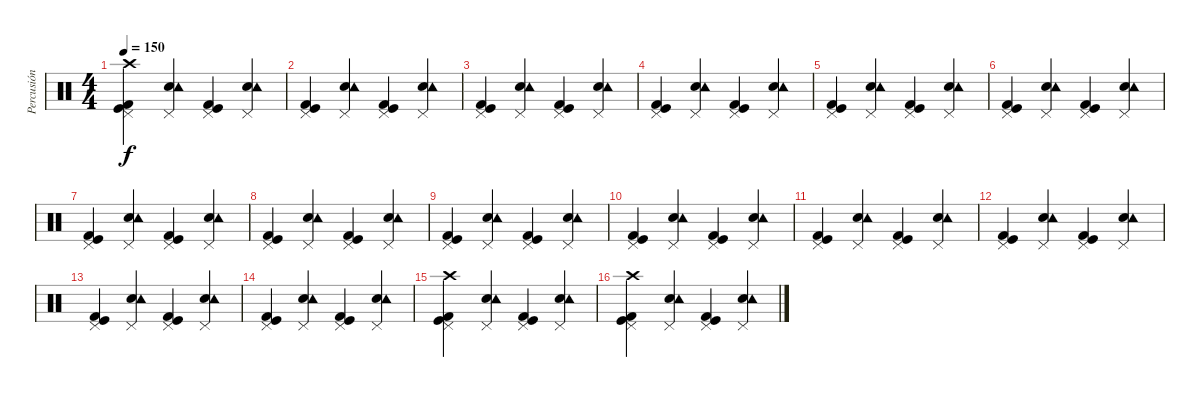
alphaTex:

\track ("Percusión" "Percusión") {instrument percussion}
\staff {score}
\articulation defaults
\ts (4 4)
\tempo 150
\clef neutral
\ks c
("Kick (hit)" "Pedal Hi-Hat (hit)" "Kick (hit) 2" "Crash high (hit)").4{dy f} ("Electric Snare (hit)" "Pedal Hi-Hat (hit)" "Tambourine (hit)").4 ("Kick (hit)" "Pedal Hi-Hat (hit)" "Kick (hit) 2").4 ("Electric Snare (hit)" "Pedal Hi-Hat (hit)" "Tambourine (hit)").4 |
("Kick (hit)" "Pedal Hi-Hat (hit)" "Kick (hit) 2").4 ("Electric Snare (hit)" "Pedal Hi-Hat (hit)" "Tambourine (hit)").4 ("Kick (hit)" "Pedal Hi-Hat (hit)" "Kick (hit) 2").4 ("Electric Snare (hit)" "Pedal Hi-Hat (hit)" "Tambourine (hit)").4 |
("Kick (hit)" "Pedal Hi-Hat (hit)" "Kick (hit) 2").4 ("Electric Snare (hit)" "Pedal Hi-Hat (hit)" "Tambourine (hit)").4 ("Kick (hit)" "Pedal Hi-Hat (hit)" "Kick (hit) 2").4 ("Electric Snare (hit)" "Pedal Hi-Hat (hit)" "Tambourine (hit)").4 |
("Kick (hit)" "Pedal Hi-Hat (hit)" "Kick (hit) 2").4 ("Electric Snare (hit)" "Pedal Hi-Hat (hit)" "Tambourine (hit)").4 ("Kick (hit)" "Pedal Hi-Hat (hit)" "Kick (hit) 2").4 ("Electric Snare (hit)" "Pedal Hi-Hat (hit)" "Tambourine (hit)").4 |
("Kick (hit)" "Pedal Hi-Hat (hit)" "Kick (hit) 2").4 ("Electric Snare (hit)" "Pedal Hi-Hat (hit)" "Tambourine (hit)").4 ("Kick (hit)" "Pedal Hi-Hat (hit)" "Kick (hit) 2").4 ("Electric Snare (hit)" "Pedal Hi-Hat (hit)" "Tambourine (hit)").4 |
("Kick (hit)" "Pedal Hi-Hat (hit)" "Kick (hit) 2").4 ("Electric Snare (hit)" "Pedal Hi-Hat (hit)" "Tambourine (hit)").4 ("Kick (hit)" "Pedal Hi-Hat (hit)" "Kick (hit) 2").4 ("Electric Snare (hit)" "Pedal Hi-Hat (hit)" "Tambourine (hit)").4 |
("Kick (hit)" "Pedal Hi-Hat (hit)" "Kick (hit) 2").4 ("Electric Snare (hit)" "Pedal Hi-Hat (hit)" "Tambourine (hit)").4 ("Kick (hit)" "Pedal Hi-Hat (hit)" "Kick (hit) 2").4 ("Electric Snare (hit)" "Pedal Hi-Hat (hit)" "Tambourine (hit)").4 |
("Kick (hit)" "Pedal Hi-Hat (hit)" "Kick (hit) 2").4 ("Electric Snare (hit)" "Pedal Hi-Hat (hit)" "Tambourine (hit)").4 ("Kick (hit)" "Pedal Hi-Hat (hit)" "Kick (hit) 2").4 ("Electric Snare (hit)" "Pedal Hi-Hat (hit)" "Tambourine (hit)").4 |
("Kick (hit)" "Pedal Hi-Hat (hit)" "Kick (hit) 2").4 ("Electric Snare (hit)" "Pedal Hi-Hat (hit)" "Tambourine (hit)").4 ("Kick (hit)" "Pedal Hi-Hat (hit)" "Kick (hit) 2").4 ("Electric Snare (hit)" "Pedal Hi-Hat (hit)" "Tambourine (hit)").4 |
("Kick (hit)" "Pedal Hi-Hat (hit)" "Kick (hit) 2").4 ("Electric Snare (hit)" "Pedal Hi-Hat (hit)" "Tambourine (hit)").4 ("Kick (hit)" "Pedal Hi-Hat (hit)" "Kick (hit) 2").4 ("Electric Snare (hit)" "Pedal Hi-Hat (hit)" "Tambourine (hit)").4 |
("Kick (hit)" "Pedal Hi-Hat (hit)" "Kick (hit) 2").4 ("Electric Snare (hit)" "Pedal Hi-Hat (hit)" "Tambourine (hit)").4 ("Kick (hit)" "Pedal Hi-Hat (hit)" "Kick (hit) 2").4 ("Electric Snare (hit)" "Pedal Hi-Hat (hit)" "Tambourine (hit)").4 |
("Kick (hit)" "Pedal Hi-Hat (hit)" "Kick (hit) 2").4 ("Electric Snare (hit)" "Pedal Hi-Hat (hit)" "Tambourine (hit)").4 ("Kick (hit)" "Pedal Hi-Hat (hit)" "Kick (hit) 2").4 ("Electric Snare (hit)" "Pedal Hi-Hat (hit)" "Tambourine (hit)").4 |
("Kick (hit)" "Pedal Hi-Hat (hit)" "Kick (hit) 2").4 ("Electric Snare (hit)" "Pedal Hi-Hat (hit)" "Tambourine (hit)").4 ("Kick (hit)" "Pedal Hi-Hat (hit)" "Kick (hit) 2").4 ("Electric Snare (hit)" "Pedal Hi-Hat (hit)" "Tambourine (hit)").4 |
("Kick (hit)" "Pedal Hi-Hat (hit)" "Kick (hit) 2").4 ("Electric Snare (hit)" "Pedal Hi-Hat (hit)" "Tambourine (hit)").4 ("Kick (hit)" "Pedal Hi-Hat (hit)" "Kick (hit) 2").4 ("Electric Snare (hit)" "Pedal Hi-Hat (hit)" "Tambourine (hit)").4 |
("Kick (hit)" "Pedal Hi-Hat (hit)" "Kick (hit) 2" "Crash high (hit)").4 ("Electric Snare (hit)" "Pedal Hi-Hat (hit)" "Tambourine (hit)").4 ("Kick (hit)" "Pedal Hi-Hat (hit)" "Kick (hit) 2").4 ("Electric Snare (hit)" "Pedal Hi-Hat (hit)" "Tambourine (hit)").4 |
("Kick (hit)" "Pedal Hi-Hat (hit)" "Kick (hit) 2" "Crash high (hit)").4 ("Electric Snare (hit)" "Pedal Hi-Hat (hit)" "Tambourine (hit)").4 ("Kick (hit)" "Pedal Hi-Hat (hit)" "Kick (hit) 2").4 ("Electric Snare (hit)" "Pedal Hi-Hat (hit)" "Tambourine (hit)").4
